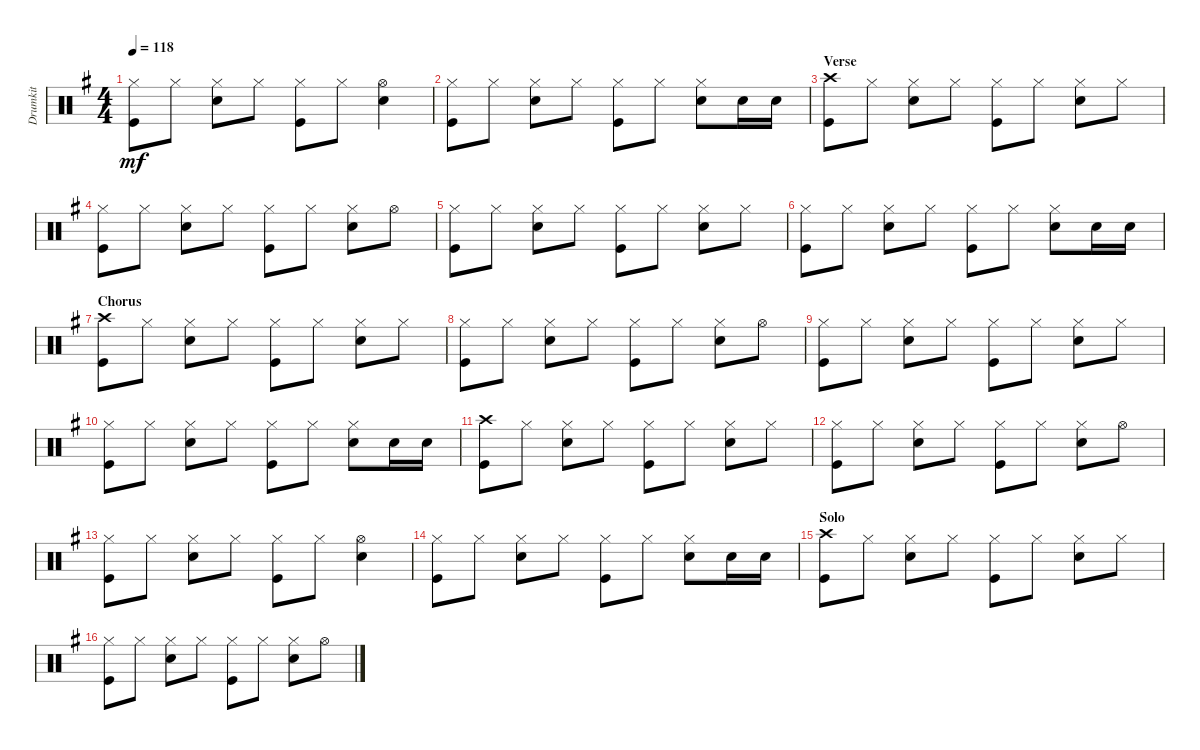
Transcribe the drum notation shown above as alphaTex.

\track ("Drumkit" "Drumkit") {instrument percussion}
\staff {score}
\articulation defaults
\ts (4 4)
\tempo 118
\clef neutral
\ks g
("Hi-Hat (closed)" "Kick (hit)").8{dy mf} "Hi-Hat (closed)".8 ("Hi-Hat (closed)" "Snare (hit) 2").8 "Hi-Hat (closed)".8 ("Hi-Hat (closed)" "Kick (hit)").8 "Hi-Hat (closed)".8 ("Hi-Hat (open)" "Snare (hit) 2").4 |
("Hi-Hat (closed)" "Kick (hit)").8 "Hi-Hat (closed)".8 ("Hi-Hat (closed)" "Snare (hit) 2").8 "Hi-Hat (closed)".8 ("Hi-Hat (closed)" "Kick (hit)").8 "Hi-Hat (closed)".8 ("Hi-Hat (closed)" "Snare (hit) 2").8 "Snare (hit) 2".16 "Snare (hit) 2".16 |
\section ("" "Verse")
("Crash high (hit)" "Kick (hit)").8 "Hi-Hat (closed)".8 ("Hi-Hat (closed)" "Snare (hit) 2").8 "Hi-Hat (closed)".8 ("Hi-Hat (closed)" "Kick (hit)").8 "Hi-Hat (closed)".8 ("Hi-Hat (closed)" "Snare (hit) 2").8 "Hi-Hat (closed)".8 |
("Hi-Hat (closed)" "Kick (hit)").8 "Hi-Hat (closed)".8 ("Hi-Hat (closed)" "Snare (hit) 2").8 "Hi-Hat (closed)".8 ("Hi-Hat (closed)" "Kick (hit)").8 "Hi-Hat (closed)".8 ("Hi-Hat (closed)" "Snare (hit) 2").8 "Hi-Hat (open)".8 |
("Hi-Hat (closed)" "Kick (hit)").8 "Hi-Hat (closed)".8 ("Hi-Hat (closed)" "Snare (hit) 2").8 "Hi-Hat (closed)".8 ("Hi-Hat (closed)" "Kick (hit)").8 "Hi-Hat (closed)".8 ("Hi-Hat (closed)" "Snare (hit) 2").8 "Hi-Hat (closed)".8 |
("Hi-Hat (closed)" "Kick (hit)").8 "Hi-Hat (closed)".8 ("Hi-Hat (closed)" "Snare (hit) 2").8 "Hi-Hat (closed)".8 ("Hi-Hat (closed)" "Kick (hit)").8 "Hi-Hat (closed)".8 ("Hi-Hat (closed)" "Snare (hit) 2").8 "Snare (hit) 2".16 "Snare (hit) 2".16 |
\section ("" "Chorus")
("Crash high (hit)" "Kick (hit)").8 "Hi-Hat (closed)".8 ("Hi-Hat (closed)" "Snare (hit) 2").8 "Hi-Hat (closed)".8 ("Hi-Hat (closed)" "Kick (hit)").8 "Hi-Hat (closed)".8 ("Hi-Hat (closed)" "Snare (hit) 2").8 "Hi-Hat (closed)".8 |
("Hi-Hat (closed)" "Kick (hit)").8 "Hi-Hat (closed)".8 ("Hi-Hat (closed)" "Snare (hit) 2").8 "Hi-Hat (closed)".8 ("Hi-Hat (closed)" "Kick (hit)").8 "Hi-Hat (closed)".8 ("Hi-Hat (closed)" "Snare (hit) 2").8 "Hi-Hat (open)".8 |
("Hi-Hat (closed)" "Kick (hit)").8 "Hi-Hat (closed)".8 ("Hi-Hat (closed)" "Snare (hit) 2").8 "Hi-Hat (closed)".8 ("Hi-Hat (closed)" "Kick (hit)").8 "Hi-Hat (closed)".8 ("Hi-Hat (closed)" "Snare (hit) 2").8 "Hi-Hat (closed)".8 |
("Hi-Hat (closed)" "Kick (hit)").8 "Hi-Hat (closed)".8 ("Hi-Hat (closed)" "Snare (hit) 2").8 "Hi-Hat (closed)".8 ("Hi-Hat (closed)" "Kick (hit)").8 "Hi-Hat (closed)".8 ("Hi-Hat (closed)" "Snare (hit) 2").8 "Snare (hit) 2".16 "Snare (hit) 2".16 |
("Crash high (hit)" "Kick (hit)").8 "Hi-Hat (closed)".8 ("Hi-Hat (closed)" "Snare (hit) 2").8 "Hi-Hat (closed)".8 ("Hi-Hat (closed)" "Kick (hit)").8 "Hi-Hat (closed)".8 ("Hi-Hat (closed)" "Snare (hit) 2").8 "Hi-Hat (closed)".8 |
("Hi-Hat (closed)" "Kick (hit)").8 "Hi-Hat (closed)".8 ("Hi-Hat (closed)" "Snare (hit) 2").8 "Hi-Hat (closed)".8 ("Hi-Hat (closed)" "Kick (hit)").8 "Hi-Hat (closed)".8 ("Hi-Hat (closed)" "Snare (hit) 2").8 "Hi-Hat (open)".8 |
("Hi-Hat (closed)" "Kick (hit)").8 "Hi-Hat (closed)".8 ("Hi-Hat (closed)" "Snare (hit) 2").8 "Hi-Hat (closed)".8 ("Hi-Hat (closed)" "Kick (hit)").8 "Hi-Hat (closed)".8 ("Hi-Hat (open)" "Snare (hit) 2").4 |
("Hi-Hat (closed)" "Kick (hit)").8 "Hi-Hat (closed)".8 ("Hi-Hat (closed)" "Snare (hit) 2").8 "Hi-Hat (closed)".8 ("Hi-Hat (closed)" "Kick (hit)").8 "Hi-Hat (closed)".8 ("Hi-Hat (closed)" "Snare (hit) 2").8 "Snare (hit) 2".16 "Snare (hit) 2".16 |
\section ("" "Solo")
("Crash high (hit)" "Kick (hit)").8 "Hi-Hat (closed)".8 ("Hi-Hat (closed)" "Snare (hit) 2").8 "Hi-Hat (closed)".8 ("Hi-Hat (closed)" "Kick (hit)").8 "Hi-Hat (closed)".8 ("Hi-Hat (closed)" "Snare (hit) 2").8 "Hi-Hat (closed)".8 |
("Hi-Hat (closed)" "Kick (hit)").8 "Hi-Hat (closed)".8 ("Hi-Hat (closed)" "Snare (hit) 2").8 "Hi-Hat (closed)".8 ("Hi-Hat (closed)" "Kick (hit)").8 "Hi-Hat (closed)".8 ("Hi-Hat (closed)" "Snare (hit) 2").8 "Hi-Hat (open)".8
